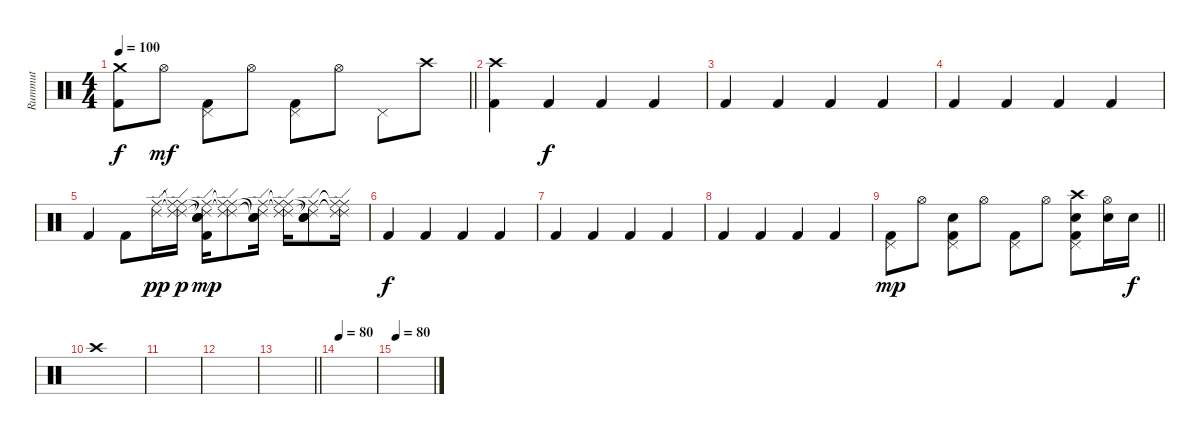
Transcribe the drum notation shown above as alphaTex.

\track ("Rummut" "Rummut") {instrument percussion}
\staff {score}
\articulation defaults
\ts (4 4)
\tempo 100
\clef neutral
\barLineRight lightlight
\ks c
("Crash medium (hit)" "Kick (hit) 2").8{dy f} "Hi-Hat (open)".8{dy mf} ("Pedal Hi-Hat (hit)" "Kick (hit) 2").8 "Hi-Hat (open)".8 ("Pedal Hi-Hat (hit)" "Kick (hit) 2").8 "Hi-Hat (open)".8 "Pedal Hi-Hat (hit)".8 "Crash high (hit)".8 |
("Crash high (hit)" "Kick (hit) 2").4 "Kick (hit) 2".4{dy f} "Kick (hit) 2".4 "Kick (hit) 2".4 |
"Kick (hit) 2".4 "Kick (hit) 2".4 "Kick (hit) 2".4 "Kick (hit) 2".4 |
"Kick (hit) 2".4 "Kick (hit) 2".4 "Kick (hit) 2".4 "Kick (hit) 2".4 |
"Kick (hit) 2".4 "Kick (hit) 2".8 ("Ride (middle)" "Ride (edge) 2").16{dy pp} ("Ride (middle)"{t} "Ride (edge) 2"{t} "Ride (middle)" "Ride (edge) 2").16{dy p} ("Ride (middle)" "Ride (edge) 2" "Snare (hit)"{t} "Snare (hit)"{t} "Kick (hit) 2").16{dy mp} ("Ride (middle)"{t} "Ride (edge) 2"{t} "Ride (middle)" "Ride (edge) 2").8 ("Ride (middle)" "Ride (edge) 2" "Snare (hit)"{t} "Snare (hit)"{t}).16 ("Ride (middle)"{t} "Ride (edge) 2"{t} "Ride (middle)" "Ride (edge) 2").16 ("Ride (middle)" "Ride (edge) 2" "Snare (hit)"{t} "Snare (hit)"{t}).8 ("Ride (middle)"{t} "Ride (edge) 2"{t} "Ride (middle)" "Ride (edge) 2").16 |
"Kick (hit) 2".4{dy f} "Kick (hit) 2".4 "Kick (hit) 2".4 "Kick (hit) 2".4 |
"Kick (hit) 2".4 "Kick (hit) 2".4 "Kick (hit) 2".4 "Kick (hit) 2".4 |
"Kick (hit) 2".4 "Kick (hit) 2".4 "Kick (hit) 2".4 "Kick (hit) 2".4 |
\barLineRight lightlight
("Pedal Hi-Hat (hit)" "Kick (hit) 2").8{dy mp} "Hi-Hat (open)".8 ("Snare (hit) 2" "Pedal Hi-Hat (hit)" "Kick (hit) 2").8 "Hi-Hat (open)".8 ("Pedal Hi-Hat (hit)" "Kick (hit) 2").8 "Hi-Hat (open)".8 ("Crash high (hit)" "Snare (hit) 2" "Pedal Hi-Hat (hit)" "Kick (hit) 2").8 ("Snare (hit) 2" "Hi-Hat (open)").16 "Snare (hit) 2".16{dy f} |
"Crash high (hit)".1 |
|
|
\barLineRight lightlight
|
\tempo 80
|
\tempo 80
